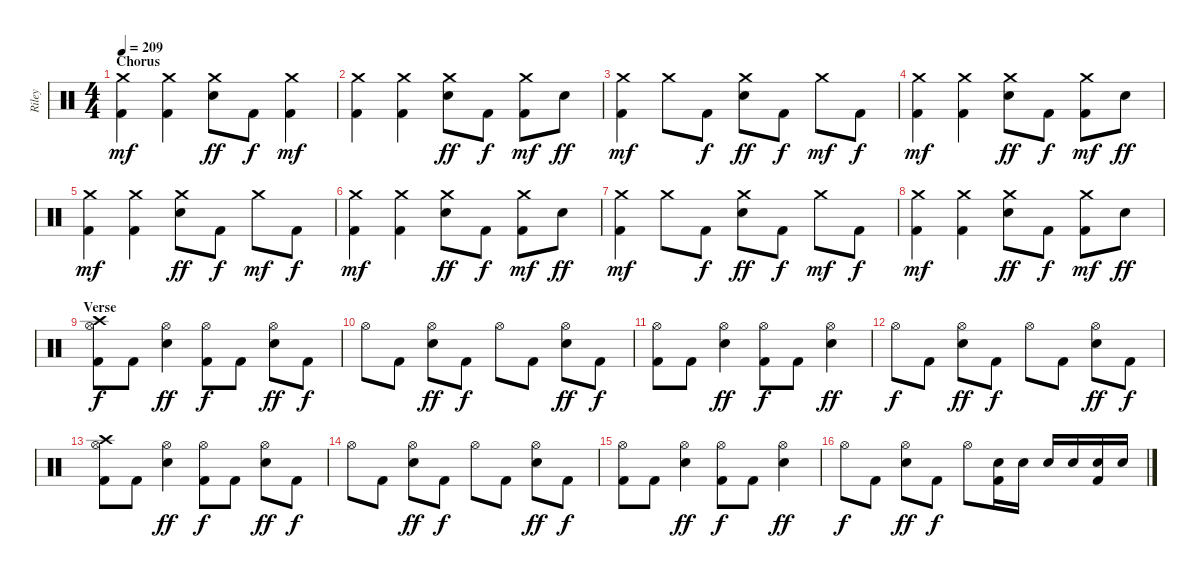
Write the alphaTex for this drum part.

\track ("Riley" "Riley") {instrument percussion}
\staff {score}
\articulation defaults
\ts (4 4)
\section ("" "Chorus")
\tempo 209
\clef neutral
\ks c
("Crash medium (hit)" "Kick (hit) 2").4{dy mf} ("Crash medium (hit)" "Kick (hit) 2").4 ("Crash medium (hit)" "Electric Snare (hit)").8{dy ff} "Kick (hit) 2".8{dy f} ("Crash medium (hit)" "Kick (hit) 2").4{dy mf} |
("Crash medium (hit)" "Kick (hit) 2").4 ("Crash medium (hit)" "Kick (hit) 2").4 ("Crash medium (hit)" "Electric Snare (hit)").8{dy ff} "Kick (hit) 2".8{dy f} ("Crash medium (hit)" "Kick (hit) 2").8{dy mf} "Electric Snare (hit)".8{dy ff} |
("Crash medium (hit)" "Kick (hit) 2").4{dy mf} "Crash medium (hit)".8 "Kick (hit) 2".8{dy f} ("Crash medium (hit)" "Electric Snare (hit)").8{dy ff} "Kick (hit) 2".8{dy f} "Crash medium (hit)".8{dy mf} "Kick (hit) 2".8{dy f} |
("Crash medium (hit)" "Kick (hit) 2").4{dy mf} ("Crash medium (hit)" "Kick (hit) 2").4 ("Crash medium (hit)" "Electric Snare (hit)").8{dy ff} "Kick (hit) 2".8{dy f} ("Crash medium (hit)" "Kick (hit) 2").8{dy mf} "Electric Snare (hit)".8{dy ff} |
("Crash medium (hit)" "Kick (hit) 2").4{dy mf} ("Crash medium (hit)" "Kick (hit) 2").4 ("Crash medium (hit)" "Electric Snare (hit)").8{dy ff} "Kick (hit) 2".8{dy f} "Crash medium (hit)".8{dy mf} "Kick (hit) 2".8{dy f} |
("Crash medium (hit)" "Kick (hit) 2").4{dy mf} ("Crash medium (hit)" "Kick (hit) 2").4 ("Crash medium (hit)" "Electric Snare (hit)").8{dy ff} "Kick (hit) 2".8{dy f} ("Crash medium (hit)" "Kick (hit) 2").8{dy mf} "Electric Snare (hit)".8{dy ff} |
("Crash medium (hit)" "Kick (hit) 2").4{dy mf} "Crash medium (hit)".8 "Kick (hit) 2".8{dy f} ("Crash medium (hit)" "Electric Snare (hit)").8{dy ff} "Kick (hit) 2".8{dy f} "Crash medium (hit)".8{dy mf} "Kick (hit) 2".8{dy f} |
("Crash medium (hit)" "Kick (hit) 2").4{dy mf} ("Crash medium (hit)" "Kick (hit) 2").4 ("Crash medium (hit)" "Electric Snare (hit)").8{dy ff} "Kick (hit) 2".8{dy f} ("Crash medium (hit)" "Kick (hit) 2").8{dy mf} "Electric Snare (hit)".8{dy ff} |
\section ("" "Verse")
("Crash high (hit)" "Hi-Hat (open)" "Kick (hit) 2").8{dy f} "Kick (hit) 2".8 ("Hi-Hat (open)" "Electric Snare (hit)").4{dy ff} ("Hi-Hat (open)" "Kick (hit) 2").8{dy f} "Kick (hit) 2".8 ("Hi-Hat (open)" "Electric Snare (hit)").8{dy ff} "Kick (hit) 2".8{dy f} |
"Hi-Hat (open)".8 "Kick (hit) 2".8 ("Hi-Hat (open)" "Electric Snare (hit)").8{dy ff} "Kick (hit) 2".8{dy f} "Hi-Hat (open)".8 "Kick (hit) 2".8 ("Hi-Hat (open)" "Electric Snare (hit)").8{dy ff} "Kick (hit) 2".8{dy f} |
("Hi-Hat (open)" "Kick (hit) 2").8 "Kick (hit) 2".8 ("Hi-Hat (open)" "Electric Snare (hit)").4{dy ff} ("Hi-Hat (open)" "Kick (hit) 2").8{dy f} "Kick (hit) 2".8 ("Hi-Hat (open)" "Electric Snare (hit)").4{dy ff} |
"Hi-Hat (open)".8{dy f} "Kick (hit) 2".8 ("Hi-Hat (open)" "Electric Snare (hit)").8{dy ff} "Kick (hit) 2".8{dy f} "Hi-Hat (open)".8 "Kick (hit) 2".8 ("Hi-Hat (open)" "Electric Snare (hit)").8{dy ff} "Kick (hit) 2".8{dy f} |
("Crash high (hit)" "Hi-Hat (open)" "Kick (hit) 2").8 "Kick (hit) 2".8 ("Hi-Hat (open)" "Electric Snare (hit)").4{dy ff} ("Hi-Hat (open)" "Kick (hit) 2").8{dy f} "Kick (hit) 2".8 ("Hi-Hat (open)" "Electric Snare (hit)").8{dy ff} "Kick (hit) 2".8{dy f} |
"Hi-Hat (open)".8 "Kick (hit) 2".8 ("Hi-Hat (open)" "Electric Snare (hit)").8{dy ff} "Kick (hit) 2".8{dy f} "Hi-Hat (open)".8 "Kick (hit) 2".8 ("Hi-Hat (open)" "Electric Snare (hit)").8{dy ff} "Kick (hit) 2".8{dy f} |
("Hi-Hat (open)" "Kick (hit) 2").8 "Kick (hit) 2".8 ("Hi-Hat (open)" "Electric Snare (hit)").4{dy ff} ("Hi-Hat (open)" "Kick (hit) 2").8{dy f} "Kick (hit) 2".8 ("Hi-Hat (open)" "Electric Snare (hit)").4{dy ff} |
"Hi-Hat (open)".8{dy f} "Kick (hit) 2".8 ("Hi-Hat (open)" "Electric Snare (hit)").8{dy ff} "Kick (hit) 2".8{dy f} "Hi-Hat (open)".8 ("Electric Snare (hit)" "Kick (hit) 2").16 "Electric Snare (hit)".16 "Electric Snare (hit)".16 "Electric Snare (hit)".16 ("Electric Snare (hit)" "Kick (hit) 2").16 "Electric Snare (hit)".16
